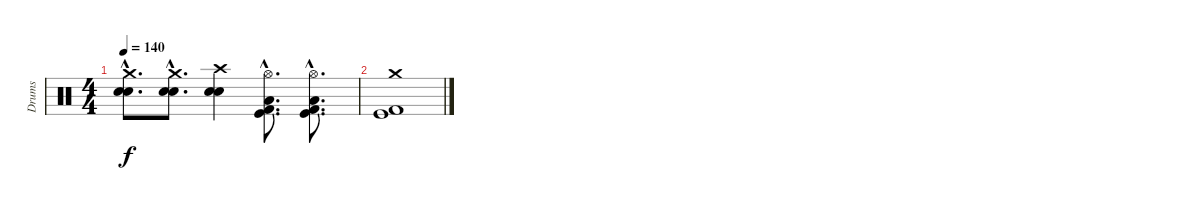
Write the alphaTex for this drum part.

\track ("Drums" "Drums") {instrument percussion}
\staff {score}
\articulation defaults
\ts (4 4)
\tempo 140
\clef neutral
\ks c
("Crash medium (hit)"{hac} "Snare (hit) 2"{hac} "Electric Snare (hit)"{hac}).8{d dy f} ("Crash medium (hit)"{hac} "Snare (hit) 2"{hac} "Electric Snare (hit)"{hac}).8{d} ("Crash high (hit)" "Snare (hit) 2" "Electric Snare (hit)").4 ("Hi-Hat (open)"{hac} "Low Floor Tom (hit)"{hac} "Kick (hit)"{hac} "Kick (hit) 2"{hac}).8{d} ("Hi-Hat (open)"{hac} "Low Floor Tom (hit)"{hac} "Kick (hit)"{hac} "Kick (hit) 2"{hac}).8{d} |
("Crash medium (hit)" "Kick (hit) 2" "Kick (hit)").1
